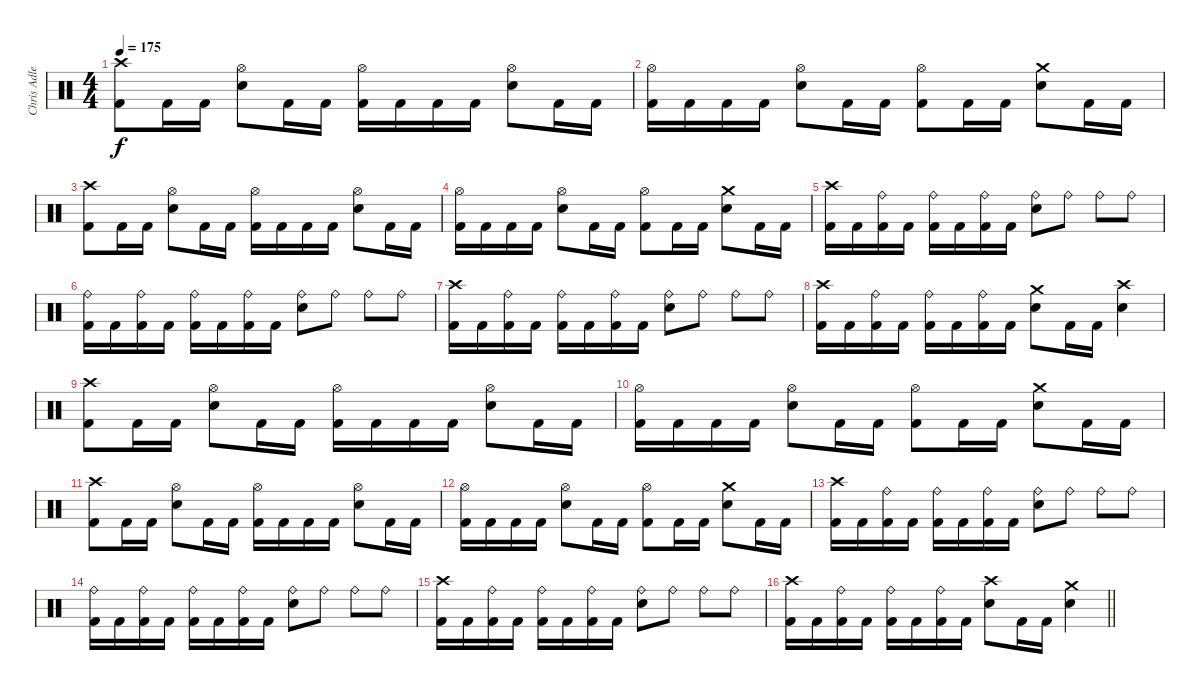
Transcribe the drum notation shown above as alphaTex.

\track ("Chris Adler" "Chris Adle") {instrument percussion}
\staff {score}
\articulation defaults
\ts (4 4)
\tempo 175
\clef neutral
\ks c
("Crash high (hit)" "Kick (hit) 2").8{dy f} "Kick (hit) 2".16 "Kick (hit) 2".16 ("Hi-Hat (open)" "Electric Snare (hit)").8 "Kick (hit) 2".16 "Kick (hit) 2".16 ("Hi-Hat (open)" "Kick (hit) 2").16 "Kick (hit) 2".16 "Kick (hit) 2".16 "Kick (hit) 2".16 ("Hi-Hat (open)" "Electric Snare (hit)").8 "Kick (hit) 2".16 "Kick (hit) 2".16 |
("Hi-Hat (open)" "Kick (hit) 2").16 "Kick (hit) 2".16 "Kick (hit) 2".16 "Kick (hit) 2".16 ("Hi-Hat (open)" "Electric Snare (hit)").8 "Kick (hit) 2".16 "Kick (hit) 2".16 ("Hi-Hat (open)" "Kick (hit) 2").8 "Kick (hit) 2".16 "Kick (hit) 2".16 ("Crash medium (hit)" "Electric Snare (hit)").8 "Kick (hit) 2".16 "Kick (hit) 2".16 |
("Crash high (hit)" "Kick (hit) 2").8 "Kick (hit) 2".16 "Kick (hit) 2".16 ("Hi-Hat (open)" "Electric Snare (hit)").8 "Kick (hit) 2".16 "Kick (hit) 2".16 ("Hi-Hat (open)" "Kick (hit) 2").16 "Kick (hit) 2".16 "Kick (hit) 2".16 "Kick (hit) 2".16 ("Hi-Hat (open)" "Electric Snare (hit)").8 "Kick (hit) 2".16 "Kick (hit) 2".16 |
("Hi-Hat (open)" "Kick (hit) 2").16 "Kick (hit) 2".16 "Kick (hit) 2".16 "Kick (hit) 2".16 ("Hi-Hat (open)" "Electric Snare (hit)").8 "Kick (hit) 2".16 "Kick (hit) 2".16 ("Hi-Hat (open)" "Kick (hit) 2").8 "Kick (hit) 2".16 "Kick (hit) 2".16 ("Crash medium (hit)" "Electric Snare (hit)").8 "Kick (hit) 2".16 "Kick (hit) 2".16 |
("Crash high (hit)" "Kick (hit) 2").16 "Kick (hit) 2".16 ("Ride (bell)" "Kick (hit) 2").16 "Kick (hit) 2".16 ("Ride (bell)" "Kick (hit) 2").16 "Kick (hit) 2".16 ("Ride (bell)" "Kick (hit) 2").16 "Kick (hit) 2".16 ("Ride (bell)" "Electric Snare (hit)").8 "Ride (bell)".8 "Ride (bell)".8 "Ride (bell)".8 |
("Ride (bell)" "Kick (hit) 2").16 "Kick (hit) 2".16 ("Ride (bell)" "Kick (hit) 2").16 "Kick (hit) 2".16 ("Ride (bell)" "Kick (hit) 2").16 "Kick (hit) 2".16 ("Ride (bell)" "Kick (hit) 2").16 "Kick (hit) 2".16 ("Ride (bell)" "Electric Snare (hit)").8 "Ride (bell)".8 "Ride (bell)".8 "Ride (bell)".8 |
("Crash high (hit)" "Kick (hit) 2").16 "Kick (hit) 2".16 ("Ride (bell)" "Kick (hit) 2").16 "Kick (hit) 2".16 ("Ride (bell)" "Kick (hit) 2").16 "Kick (hit) 2".16 ("Ride (bell)" "Kick (hit) 2").16 "Kick (hit) 2".16 ("Ride (bell)" "Electric Snare (hit)").8 "Ride (bell)".8 "Ride (bell)".8 "Ride (bell)".8 |
("Crash high (hit)" "Kick (hit) 2").16 "Kick (hit) 2".16 ("Ride (bell)" "Kick (hit) 2").16 "Kick (hit) 2".16 ("Ride (bell)" "Kick (hit) 2").16 "Kick (hit) 2".16 ("Ride (bell)" "Kick (hit) 2").16 "Kick (hit) 2".16 ("Crash medium (hit)" "Electric Snare (hit)").8 "Kick (hit) 2".16 "Kick (hit) 2".16 ("Crash high (hit)" "Electric Snare (hit)").4 |
("Crash high (hit)" "Kick (hit) 2").8 "Kick (hit) 2".16 "Kick (hit) 2".16 ("Hi-Hat (open)" "Electric Snare (hit)").8 "Kick (hit) 2".16 "Kick (hit) 2".16 ("Hi-Hat (open)" "Kick (hit) 2").16 "Kick (hit) 2".16 "Kick (hit) 2".16 "Kick (hit) 2".16 ("Hi-Hat (open)" "Electric Snare (hit)").8 "Kick (hit) 2".16 "Kick (hit) 2".16 |
("Hi-Hat (open)" "Kick (hit) 2").16 "Kick (hit) 2".16 "Kick (hit) 2".16 "Kick (hit) 2".16 ("Hi-Hat (open)" "Electric Snare (hit)").8 "Kick (hit) 2".16 "Kick (hit) 2".16 ("Hi-Hat (open)" "Kick (hit) 2").8 "Kick (hit) 2".16 "Kick (hit) 2".16 ("Crash medium (hit)" "Electric Snare (hit)").8 "Kick (hit) 2".16 "Kick (hit) 2".16 |
("Crash high (hit)" "Kick (hit) 2").8 "Kick (hit) 2".16 "Kick (hit) 2".16 ("Hi-Hat (open)" "Electric Snare (hit)").8 "Kick (hit) 2".16 "Kick (hit) 2".16 ("Hi-Hat (open)" "Kick (hit) 2").16 "Kick (hit) 2".16 "Kick (hit) 2".16 "Kick (hit) 2".16 ("Hi-Hat (open)" "Electric Snare (hit)").8 "Kick (hit) 2".16 "Kick (hit) 2".16 |
("Hi-Hat (open)" "Kick (hit) 2").16 "Kick (hit) 2".16 "Kick (hit) 2".16 "Kick (hit) 2".16 ("Hi-Hat (open)" "Electric Snare (hit)").8 "Kick (hit) 2".16 "Kick (hit) 2".16 ("Hi-Hat (open)" "Kick (hit) 2").8 "Kick (hit) 2".16 "Kick (hit) 2".16 ("Crash medium (hit)" "Electric Snare (hit)").8 "Kick (hit) 2".16 "Kick (hit) 2".16 |
("Crash high (hit)" "Kick (hit) 2").16 "Kick (hit) 2".16 ("Ride (bell)" "Kick (hit) 2").16 "Kick (hit) 2".16 ("Ride (bell)" "Kick (hit) 2").16 "Kick (hit) 2".16 ("Ride (bell)" "Kick (hit) 2").16 "Kick (hit) 2".16 ("Ride (bell)" "Electric Snare (hit)").8 "Ride (bell)".8 "Ride (bell)".8 "Ride (bell)".8 |
("Ride (bell)" "Kick (hit) 2").16 "Kick (hit) 2".16 ("Ride (bell)" "Kick (hit) 2").16 "Kick (hit) 2".16 ("Ride (bell)" "Kick (hit) 2").16 "Kick (hit) 2".16 ("Ride (bell)" "Kick (hit) 2").16 "Kick (hit) 2".16 ("Ride (bell)" "Electric Snare (hit)").8 "Ride (bell)".8 "Ride (bell)".8 "Ride (bell)".8 |
("Crash high (hit)" "Kick (hit) 2").16 "Kick (hit) 2".16 ("Ride (bell)" "Kick (hit) 2").16 "Kick (hit) 2".16 ("Ride (bell)" "Kick (hit) 2").16 "Kick (hit) 2".16 ("Ride (bell)" "Kick (hit) 2").16 "Kick (hit) 2".16 ("Ride (bell)" "Electric Snare (hit)").8 "Ride (bell)".8 "Ride (bell)".8 "Ride (bell)".8 |
\barLineRight lightlight
("Crash high (hit)" "Kick (hit) 2").16 "Kick (hit) 2".16 ("Ride (bell)" "Kick (hit) 2").16 "Kick (hit) 2".16 ("Ride (bell)" "Kick (hit) 2").16 "Kick (hit) 2".16 ("Ride (bell)" "Kick (hit) 2").16 "Kick (hit) 2".16 ("Crash high (hit)" "Electric Snare (hit)").8 "Kick (hit) 2".16 "Kick (hit) 2".16 ("Crash medium (hit)" "Electric Snare (hit)").4
